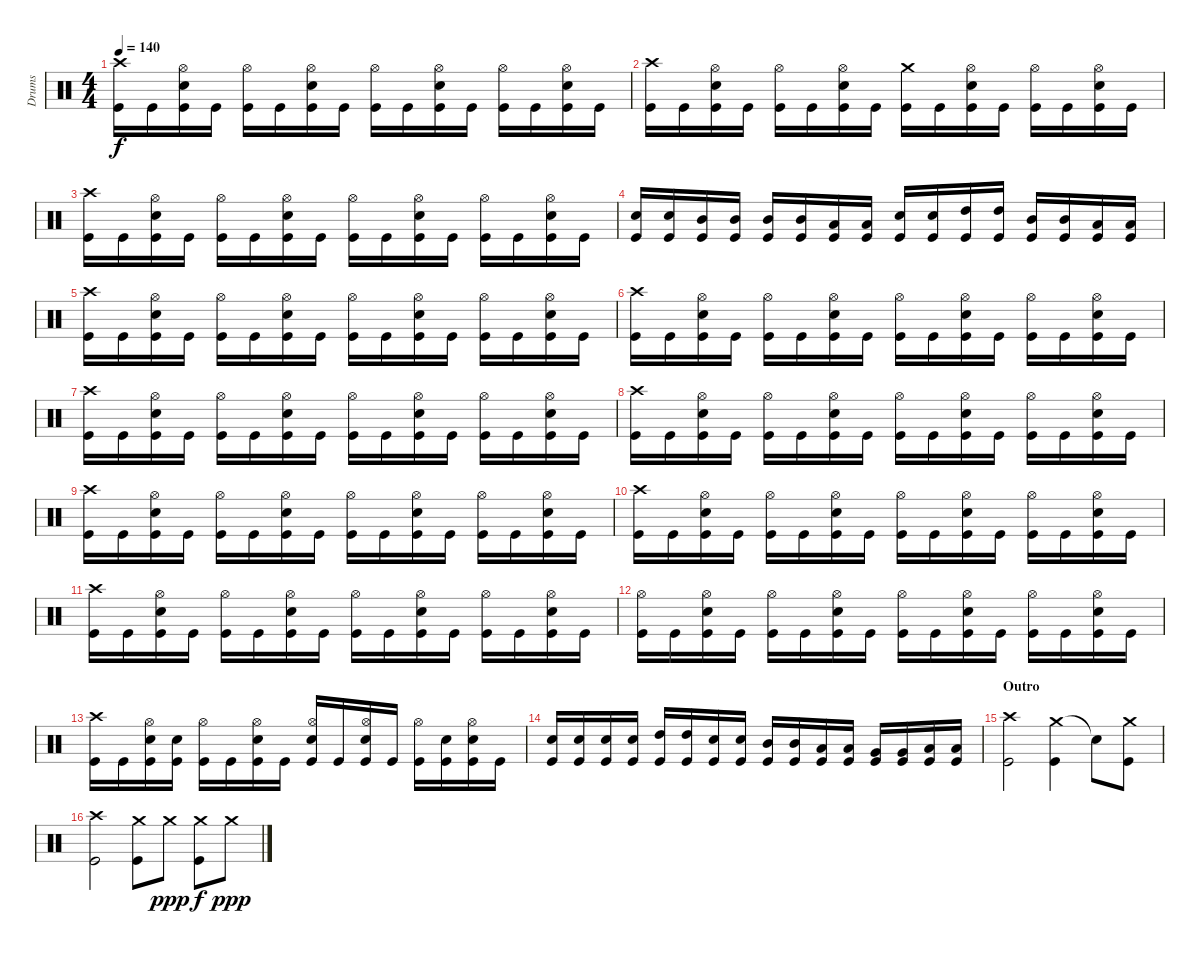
\track ("Drums" "Drums") {instrument percussion}
\staff {score}
\articulation defaults
\ts (4 4)
\tempo 140
\clef neutral
\ks c
("Crash high (hit)" "Kick (hit)").16{dy f} "Kick (hit)".16 ("Hi-Hat (open)" "Electric Snare (hit)" "Kick (hit)").16 "Kick (hit)".16 ("Hi-Hat (open)" "Kick (hit)").16 "Kick (hit)".16 ("Hi-Hat (open)" "Electric Snare (hit)" "Kick (hit)").16 "Kick (hit)".16 ("Hi-Hat (open)" "Kick (hit)").16 "Kick (hit)".16 ("Hi-Hat (open)" "Electric Snare (hit)" "Kick (hit)").16 "Kick (hit)".16 ("Hi-Hat (open)" "Kick (hit)").16 "Kick (hit)".16 ("Hi-Hat (open)" "Electric Snare (hit)" "Kick (hit)").16 "Kick (hit)".16 |
("Crash high (hit)" "Kick (hit)").16 "Kick (hit)".16 ("Hi-Hat (open)" "Electric Snare (hit)" "Kick (hit)").16 "Kick (hit)".16 ("Hi-Hat (open)" "Kick (hit)").16 "Kick (hit)".16 ("Hi-Hat (open)" "Electric Snare (hit)" "Kick (hit)").16 "Kick (hit)".16 ("Crash medium (hit)" "Kick (hit)").16 "Kick (hit)".16 ("Hi-Hat (open)" "Electric Snare (hit)" "Kick (hit)").16 "Kick (hit)".16 ("Hi-Hat (open)" "Kick (hit)").16 "Kick (hit)".16 ("Hi-Hat (open)" "Electric Snare (hit)" "Kick (hit)").16 "Kick (hit)".16 |
("Crash high (hit)" "Kick (hit)").16 "Kick (hit)".16 ("Hi-Hat (open)" "Electric Snare (hit)" "Kick (hit)").16 "Kick (hit)".16 ("Hi-Hat (open)" "Kick (hit)").16 "Kick (hit)".16 ("Hi-Hat (open)" "Electric Snare (hit)" "Kick (hit)").16 "Kick (hit)".16 ("Hi-Hat (open)" "Kick (hit)").16 "Kick (hit)".16 ("Hi-Hat (open)" "Electric Snare (hit)" "Kick (hit)").16 "Kick (hit)".16 ("Hi-Hat (open)" "Kick (hit)").16 "Kick (hit)".16 ("Hi-Hat (open)" "Electric Snare (hit)" "Kick (hit)").16 "Kick (hit)".16 |
("Electric Snare (hit)" "Kick (hit)").16 ("Electric Snare (hit)" "Kick (hit)").16 ("Mid Tom (hit)" "Kick (hit)").16 ("Mid Tom (hit)" "Kick (hit)").16 ("Mid Tom (hit)" "Kick (hit)").16 ("Mid Tom (hit)" "Kick (hit)").16 ("Low Tom (hit)" "Kick (hit)").16 ("Low Tom (hit)" "Kick (hit)").16 ("Electric Snare (hit)" "Kick (hit)").16 ("Electric Snare (hit)" "Kick (hit)").16 ("High Tom (hit)" "Kick (hit)").16 ("High Tom (hit)" "Kick (hit)").16 ("Mid Tom (hit)" "Kick (hit)").16 ("Mid Tom (hit)" "Kick (hit)").16 ("Low Tom (hit)" "Kick (hit)").16 ("Low Tom (hit)" "Kick (hit)").16 |
("Crash high (hit)" "Kick (hit)").16 "Kick (hit)".16 ("Hi-Hat (open)" "Electric Snare (hit)" "Kick (hit)").16 "Kick (hit)".16 ("Hi-Hat (open)" "Kick (hit)").16 "Kick (hit)".16 ("Hi-Hat (open)" "Electric Snare (hit)" "Kick (hit)").16 "Kick (hit)".16 ("Hi-Hat (open)" "Kick (hit)").16 "Kick (hit)".16 ("Hi-Hat (open)" "Electric Snare (hit)" "Kick (hit)").16 "Kick (hit)".16 ("Hi-Hat (open)" "Kick (hit)").16 "Kick (hit)".16 ("Hi-Hat (open)" "Electric Snare (hit)" "Kick (hit)").16 "Kick (hit)".16 |
("Crash high (hit)" "Kick (hit)").16 "Kick (hit)".16 ("Hi-Hat (open)" "Electric Snare (hit)" "Kick (hit)").16 "Kick (hit)".16 ("Hi-Hat (open)" "Kick (hit)").16 "Kick (hit)".16 ("Hi-Hat (open)" "Electric Snare (hit)" "Kick (hit)").16 "Kick (hit)".16 ("Hi-Hat (open)" "Kick (hit)").16 "Kick (hit)".16 ("Hi-Hat (open)" "Electric Snare (hit)" "Kick (hit)").16 "Kick (hit)".16 ("Hi-Hat (open)" "Kick (hit)").16 "Kick (hit)".16 ("Hi-Hat (open)" "Electric Snare (hit)" "Kick (hit)").16 "Kick (hit)".16 |
("Crash high (hit)" "Kick (hit)").16 "Kick (hit)".16 ("Hi-Hat (open)" "Electric Snare (hit)" "Kick (hit)").16 "Kick (hit)".16 ("Hi-Hat (open)" "Kick (hit)").16 "Kick (hit)".16 ("Hi-Hat (open)" "Electric Snare (hit)" "Kick (hit)").16 "Kick (hit)".16 ("Hi-Hat (open)" "Kick (hit)").16 "Kick (hit)".16 ("Hi-Hat (open)" "Electric Snare (hit)" "Kick (hit)").16 "Kick (hit)".16 ("Hi-Hat (open)" "Kick (hit)").16 "Kick (hit)".16 ("Hi-Hat (open)" "Electric Snare (hit)" "Kick (hit)").16 "Kick (hit)".16 |
("Crash high (hit)" "Kick (hit)").16 "Kick (hit)".16 ("Hi-Hat (open)" "Electric Snare (hit)" "Kick (hit)").16 "Kick (hit)".16 ("Hi-Hat (open)" "Kick (hit)").16 "Kick (hit)".16 ("Hi-Hat (open)" "Electric Snare (hit)" "Kick (hit)").16 "Kick (hit)".16 ("Hi-Hat (open)" "Kick (hit)").16 "Kick (hit)".16 ("Hi-Hat (open)" "Electric Snare (hit)" "Kick (hit)").16 "Kick (hit)".16 ("Hi-Hat (open)" "Kick (hit)").16 "Kick (hit)".16 ("Hi-Hat (open)" "Electric Snare (hit)" "Kick (hit)").16 "Kick (hit)".16 |
("Crash high (hit)" "Kick (hit)").16 "Kick (hit)".16 ("Hi-Hat (open)" "Electric Snare (hit)" "Kick (hit)").16 "Kick (hit)".16 ("Hi-Hat (open)" "Kick (hit)").16 "Kick (hit)".16 ("Hi-Hat (open)" "Electric Snare (hit)" "Kick (hit)").16 "Kick (hit)".16 ("Hi-Hat (open)" "Kick (hit)").16 "Kick (hit)".16 ("Hi-Hat (open)" "Electric Snare (hit)" "Kick (hit)").16 "Kick (hit)".16 ("Hi-Hat (open)" "Kick (hit)").16 "Kick (hit)".16 ("Hi-Hat (open)" "Electric Snare (hit)" "Kick (hit)").16 "Kick (hit)".16 |
("Crash high (hit)" "Kick (hit)").16 "Kick (hit)".16 ("Hi-Hat (open)" "Electric Snare (hit)" "Kick (hit)").16 "Kick (hit)".16 ("Hi-Hat (open)" "Kick (hit)").16 "Kick (hit)".16 ("Hi-Hat (open)" "Electric Snare (hit)" "Kick (hit)").16 "Kick (hit)".16 ("Hi-Hat (open)" "Kick (hit)").16 "Kick (hit)".16 ("Hi-Hat (open)" "Electric Snare (hit)" "Kick (hit)").16 "Kick (hit)".16 ("Hi-Hat (open)" "Kick (hit)").16 "Kick (hit)".16 ("Hi-Hat (open)" "Electric Snare (hit)" "Kick (hit)").16 "Kick (hit)".16 |
("Crash high (hit)" "Kick (hit)").16 "Kick (hit)".16 ("Hi-Hat (open)" "Electric Snare (hit)" "Kick (hit)").16 "Kick (hit)".16 ("Hi-Hat (open)" "Kick (hit)").16 "Kick (hit)".16 ("Hi-Hat (open)" "Electric Snare (hit)" "Kick (hit)").16 "Kick (hit)".16 ("Hi-Hat (open)" "Kick (hit)").16 "Kick (hit)".16 ("Hi-Hat (open)" "Electric Snare (hit)" "Kick (hit)").16 "Kick (hit)".16 ("Hi-Hat (open)" "Kick (hit)").16 "Kick (hit)".16 ("Hi-Hat (open)" "Electric Snare (hit)" "Kick (hit)").16 "Kick (hit)".16 |
("Hi-Hat (open)" "Kick (hit)").16 "Kick (hit)".16 ("Hi-Hat (open)" "Electric Snare (hit)" "Kick (hit)").16 "Kick (hit)".16 ("Hi-Hat (open)" "Kick (hit)").16 "Kick (hit)".16 ("Hi-Hat (open)" "Electric Snare (hit)" "Kick (hit)").16 "Kick (hit)".16 ("Hi-Hat (open)" "Kick (hit)").16 "Kick (hit)".16 ("Hi-Hat (open)" "Electric Snare (hit)" "Kick (hit)").16 "Kick (hit)".16 ("Hi-Hat (open)" "Kick (hit)").16 "Kick (hit)".16 ("Hi-Hat (open)" "Electric Snare (hit)" "Kick (hit)").16 "Kick (hit)".16 |
("Crash high (hit)" "Kick (hit)").16 "Kick (hit)".16 ("Hi-Hat (open)" "Electric Snare (hit)" "Kick (hit)").16 ("Electric Snare (hit)" "Kick (hit)").16 ("Hi-Hat (open)" "Kick (hit)").16 "Kick (hit)".16 ("Hi-Hat (open)" "Electric Snare (hit)" "Kick (hit)").16 "Kick (hit)".16 ("Hi-Hat (open)" "Electric Snare (hit)" "Kick (hit)").16 "Kick (hit)".16 ("Hi-Hat (open)" "Electric Snare (hit)" "Kick (hit)").16 "Kick (hit)".16 ("Hi-Hat (open)" "Kick (hit)").16 ("Electric Snare (hit)" "Kick (hit)").16 ("Hi-Hat (open)" "Electric Snare (hit)" "Kick (hit)").16 "Kick (hit)".16 |
("Electric Snare (hit)" "Kick (hit)").16 ("Electric Snare (hit)" "Kick (hit)").16 ("Electric Snare (hit)" "Kick (hit)").16 ("Electric Snare (hit)" "Kick (hit)").16 ("High Tom (hit)" "Kick (hit)").16 ("High Tom (hit)" "Kick (hit)").16 ("Electric Snare (hit)" "Kick (hit)").16 ("Electric Snare (hit)" "Kick (hit)").16 ("Mid Tom (hit)" "Kick (hit)").16 ("Mid Tom (hit)" "Kick (hit)").16 ("Low Tom (hit)" "Kick (hit)").16 ("Low Tom (hit)" "Kick (hit)").16 ("Very Low Tom (hit)" "Kick (hit)").16 ("Very Low Tom (hit)" "Kick (hit)").16 ("Low Floor Tom (hit)" "Kick (hit)").16 ("Low Floor Tom (hit)" "Kick (hit)").16 |
\section ("" "Outro")
("Crash high (hit)" "Kick (hit)").2 ("Crash medium (hit)" "Kick (hit)").4 "Snare (hit)"{t}.8 ("Crash medium (hit)" "Kick (hit)").8 |
("Crash high (hit)" "Kick (hit)").2 ("Crash medium (hit)" "Kick (hit)").8 "Crash medium (hit)".8{dy ppp} ("Crash medium (hit)" "Kick (hit)").8{dy f} "Crash medium (hit)".8{dy ppp}
